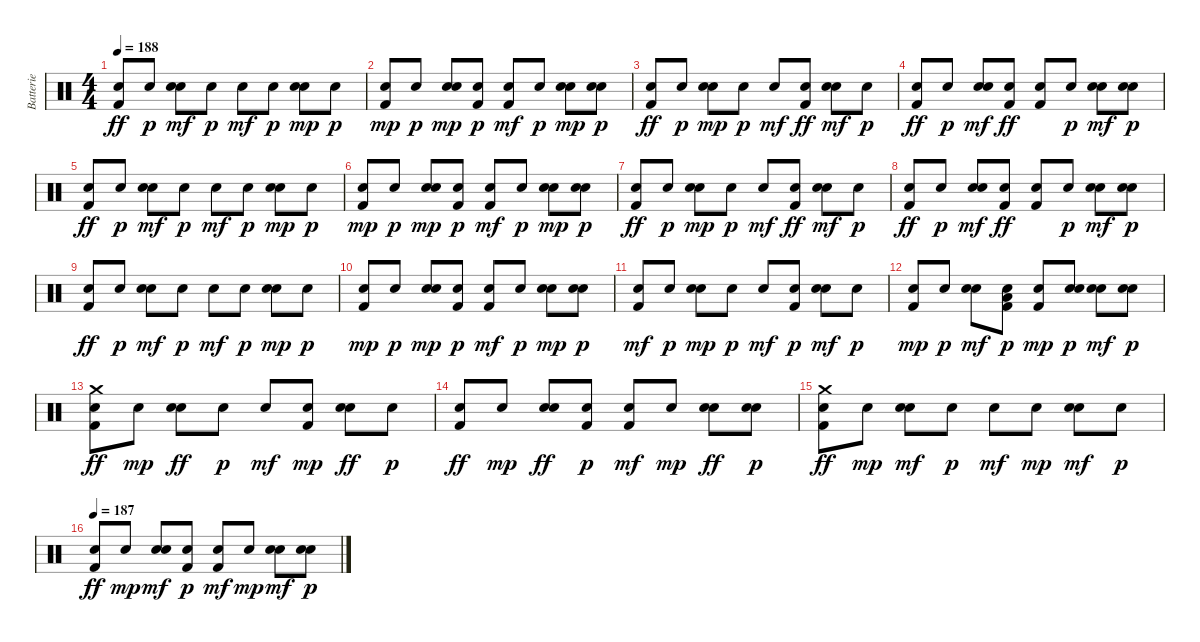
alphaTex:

\track ("Batterie            " "Batterie  ") {instrument percussion}
\staff {score}
\articulation defaults
\ts (4 4)
\tempo 188
\clef neutral
\ks c
("Snare (hit) 2" "Kick (hit) 2").8{dy ff} "Snare (hit) 2".8{dy p} ("Hand Clap (hit)" "Snare (hit) 2").8{dy mf} "Snare (hit) 2".8{dy p} "Snare (hit) 2".8{dy mf} "Snare (hit) 2".8{dy p} ("Hand Clap (hit)" "Snare (hit) 2").8{dy mp} "Snare (hit) 2".8{dy p} |
("Snare (hit) 2" "Kick (hit) 2").8{dy mp} "Snare (hit) 2".8{dy p} ("Hand Clap (hit)" "Snare (hit) 2").8{dy mp} ("Snare (hit) 2" "Kick (hit) 2").8{dy p} ("Snare (hit) 2" "Kick (hit) 2").8{dy mf} "Snare (hit) 2".8{dy p} ("Hand Clap (hit)" "Snare (hit) 2").8{dy mp} ("Hand Clap (hit)" "Snare (hit) 2").8{dy p} |
("Snare (hit) 2" "Kick (hit) 2").8{dy ff} "Snare (hit) 2".8{dy p} ("Hand Clap (hit)" "Snare (hit) 2").8{dy mp} "Snare (hit) 2".8{dy p} "Snare (hit) 2".8{dy mf} ("Snare (hit) 2" "Kick (hit) 2").8{dy ff} ("Hand Clap (hit)" "Snare (hit) 2").8{dy mf} "Snare (hit) 2".8{dy p} |
("Snare (hit) 2" "Kick (hit) 2").8{dy ff} "Snare (hit) 2".8{dy p} ("Hand Clap (hit)" "Snare (hit) 2").8{dy mf} ("Snare (hit) 2" "Kick (hit) 2").8{dy ff} ("Snare (hit) 2" "Kick (hit) 2").8 "Snare (hit) 2".8{dy p} ("Hand Clap (hit)" "Snare (hit) 2").8{dy mf} ("Hand Clap (hit)" "Snare (hit) 2").8{dy p} |
("Snare (hit) 2" "Kick (hit) 2").8{dy ff} "Snare (hit) 2".8{dy p} ("Hand Clap (hit)" "Snare (hit) 2").8{dy mf} "Snare (hit) 2".8{dy p} "Snare (hit) 2".8{dy mf} "Snare (hit) 2".8{dy p} ("Hand Clap (hit)" "Snare (hit) 2").8{dy mp} "Snare (hit) 2".8{dy p} |
("Snare (hit) 2" "Kick (hit) 2").8{dy mp} "Snare (hit) 2".8{dy p} ("Hand Clap (hit)" "Snare (hit) 2").8{dy mp} ("Snare (hit) 2" "Kick (hit) 2").8{dy p} ("Snare (hit) 2" "Kick (hit) 2").8{dy mf} "Snare (hit) 2".8{dy p} ("Hand Clap (hit)" "Snare (hit) 2").8{dy mp} ("Hand Clap (hit)" "Snare (hit) 2").8{dy p} |
("Snare (hit) 2" "Kick (hit) 2").8{dy ff} "Snare (hit) 2".8{dy p} ("Hand Clap (hit)" "Snare (hit) 2").8{dy mp} "Snare (hit) 2".8{dy p} "Snare (hit) 2".8{dy mf} ("Snare (hit) 2" "Kick (hit) 2").8{dy ff} ("Hand Clap (hit)" "Snare (hit) 2").8{dy mf} "Snare (hit) 2".8{dy p} |
("Snare (hit) 2" "Kick (hit) 2").8{dy ff} "Snare (hit) 2".8{dy p} ("Hand Clap (hit)" "Snare (hit) 2").8{dy mf} ("Snare (hit) 2" "Kick (hit) 2").8{dy ff} ("Snare (hit) 2" "Kick (hit) 2").8 "Snare (hit) 2".8{dy p} ("Hand Clap (hit)" "Snare (hit) 2").8{dy mf} ("Hand Clap (hit)" "Snare (hit) 2").8{dy p} |
("Kick (hit) 2" "Snare (hit) 2").8{dy ff} "Snare (hit) 2".8{dy p} ("Hand Clap (hit)" "Snare (hit) 2").8{dy mf} "Snare (hit) 2".8{dy p} "Snare (hit) 2".8{dy mf} "Snare (hit) 2".8{dy p} ("Hand Clap (hit)" "Snare (hit) 2").8{dy mp} "Snare (hit) 2".8{dy p} |
("Kick (hit) 2" "Snare (hit) 2").8{dy mp} "Snare (hit) 2".8{dy p} ("Hand Clap (hit)" "Snare (hit) 2").8{dy mp} ("Kick (hit) 2" "Snare (hit) 2").8{dy p} ("Kick (hit) 2" "Snare (hit) 2").8{dy mf} "Snare (hit) 2".8{dy p} ("Hand Clap (hit)" "Snare (hit) 2").8{dy mp} ("Hand Clap (hit)" "Snare (hit) 2").8{dy p} |
("Kick (hit) 2" "Snare (hit) 2").8{dy mf} "Snare (hit) 2".8{dy p} ("Hand Clap (hit)" "Snare (hit) 2").8{dy mp} "Snare (hit) 2".8{dy p} "Snare (hit) 2".8{dy mf} ("Kick (hit) 2" "Snare (hit) 2").8{dy p} ("Hand Clap (hit)" "Snare (hit) 2").8{dy mf} "Snare (hit) 2".8{dy p} |
("Kick (hit) 2" "Snare (hit) 2").8{dy mp} "Snare (hit) 2".8{dy p} ("Hand Clap (hit)" "Snare (hit) 2").8{dy mf} ("Low Tom (hit)" "Kick (hit) 2" "Snare (hit) 2").8{dy p} ("Kick (hit) 2" "Snare (hit) 2").8{dy mp} ("Hand Clap (hit)" "Snare (hit) 2").8{dy p} ("Hand Clap (hit)" "Snare (hit) 2").8{dy mf} ("Hand Clap (hit)" "Snare (hit) 2").8{dy p} |
("Kick (hit) 2" "Snare (hit) 2" "Crash medium (hit)").8{dy ff} "Snare (hit) 2".8{dy mp} ("Snare (hit) 2" "Hand Clap (hit)").8{dy ff} "Snare (hit) 2".8{dy p} "Snare (hit) 2".8{dy mf} ("Kick (hit) 2" "Snare (hit) 2").8{dy mp} ("Snare (hit) 2" "Hand Clap (hit)").8{dy ff} "Snare (hit) 2".8{dy p} |
("Snare (hit) 2" "Kick (hit) 2").8{dy ff} "Snare (hit) 2".8{dy mp} ("Snare (hit) 2" "Hand Clap (hit)").8{dy ff} ("Snare (hit) 2" "Kick (hit) 2").8{dy p} ("Snare (hit) 2" "Kick (hit) 2").8{dy mf} "Snare (hit) 2".8{dy mp} ("Snare (hit) 2" "Hand Clap (hit)").8{dy ff} ("Snare (hit) 2" "Hand Clap (hit)").8{dy p} |
("Snare (hit) 2" "Kick (hit) 2" "Crash medium (hit)").8{dy ff} "Snare (hit) 2".8{dy mp} ("Hand Clap (hit)" "Snare (hit) 2").8{dy mf} "Snare (hit) 2".8{dy p} "Snare (hit) 2".8{dy mf} "Snare (hit) 2".8{dy mp} ("Hand Clap (hit)" "Snare (hit) 2").8{dy mf} "Snare (hit) 2".8{dy p} |
\tempo 187
("Snare (hit) 2" "Kick (hit) 2").8{dy ff} "Snare (hit) 2".8{dy mp} ("Hand Clap (hit)" "Snare (hit) 2").8{dy mf} ("Snare (hit) 2" "Kick (hit) 2").8{dy p} ("Snare (hit) 2" "Kick (hit) 2").8{dy mf} "Snare (hit) 2".8{dy mp} ("Hand Clap (hit)" "Snare (hit) 2").8{dy mf} ("Hand Clap (hit)" "Snare (hit) 2").8{dy p}
